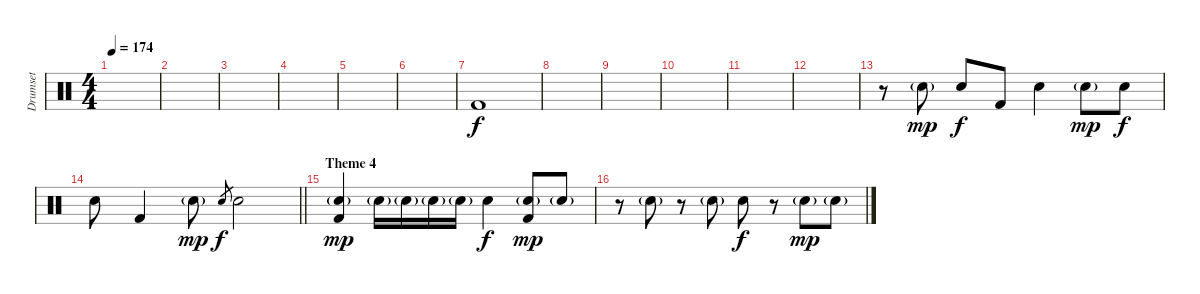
\track ("Drumset" "Drumset") {instrument percussion}
\staff {score}
\articulation defaults
\ts (4 4)
\tempo 174
\clef neutral
\ks c
|
|
|
|
|
|
"Kick (hit) 2".1 |
|
|
|
|
|
r.8 "Snare (hit) 2"{g}.8{dy mp} "Snare (hit) 2".8{dy f} "Kick (hit) 2".8 "Snare (hit) 2".4 "Snare (hit) 2"{g}.8{dy mp} "Snare (hit) 2".8{dy f} |
\barLineRight lightlight "Snare (hit) 2".8 "Kick (hit) 2".4 "Snare (hit) 2"{g}.8{dy mp} "Snare (hit) 2".8{gr dy f} "Snare (hit) 2".2
|
\section ("" "Theme 4")
("Snare (hit) 2"{g} "Kick (hit) 2").4{dy mp} "Snare (hit) 2"{g}.16 "Snare (hit) 2"{g}.16 "Snare (hit) 2"{g}.16 "Snare (hit) 2"{g}.16 "Snare (hit) 2".4{dy f} ("Snare (hit) 2"{g} "Kick (hit) 2").8{dy mp} "Snare (hit) 2"{g}.8 |
r.8 "Snare (hit) 2"{g}.8 r.8 "Snare (hit) 2"{g}.8 "Snare (hit) 2".8{dy f} r.8 "Snare (hit) 2"{g}.8{dy mp} "Snare (hit) 2"{g}.8
